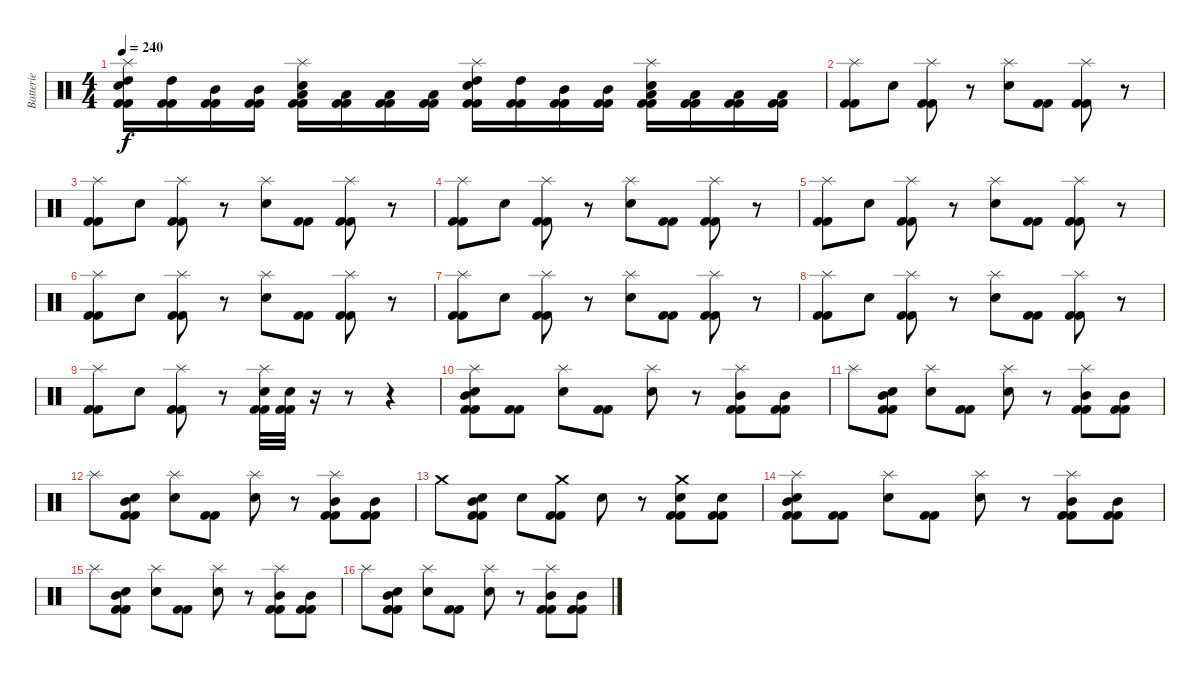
\track ("Batterie" "Batterie") {instrument percussion}
\staff {score}
\articulation defaults
\ts (4 4)
\tempo 240
\clef neutral
\ks c
("Splash (hit)" "Snare (hit) 2" "High Tom (hit)" "Kick (hit) 2" "Kick (hit) 2").16{dy f} ("High Tom (hit)" "Kick (hit) 2" "Kick (hit) 2").16 ("Mid Tom (hit)" "Kick (hit) 2" "Kick (hit) 2").16 ("Mid Tom (hit)" "Kick (hit) 2" "Kick (hit) 2").16 ("Splash (hit)" "Snare (hit) 2" "Low Tom (hit)" "Kick (hit) 2" "Kick (hit) 2").16 ("Low Tom (hit)" "Kick (hit) 2" "Kick (hit) 2").16 ("Low Tom (hit)" "Kick (hit) 2" "Kick (hit) 2").16 ("Low Tom (hit)" "Kick (hit) 2" "Kick (hit) 2").16 ("Splash (hit)" "Snare (hit) 2" "High Tom (hit)" "Kick (hit) 2" "Kick (hit) 2").16 ("High Tom (hit)" "Kick (hit) 2" "Kick (hit) 2").16 ("Mid Tom (hit)" "Kick (hit) 2" "Kick (hit) 2").16 ("Mid Tom (hit)" "Kick (hit) 2" "Kick (hit) 2").16 ("Splash (hit)" "Snare (hit) 2" "Low Tom (hit)" "Kick (hit) 2" "Kick (hit) 2").16 ("Low Tom (hit)" "Kick (hit) 2" "Kick (hit) 2").16 ("Low Tom (hit)" "Kick (hit) 2" "Kick (hit) 2").16 ("Low Tom (hit)" "Kick (hit) 2" "Kick (hit) 2").16 |
("Splash (hit)" "Kick (hit) 2" "Kick (hit) 2").8 "Snare (hit) 2".8 ("Splash (hit)" "Kick (hit) 2" "Kick (hit) 2").8 r.8 ("Splash (hit)" "Snare (hit) 2").8 ("Kick (hit) 2" "Kick (hit) 2").8 ("Splash (hit)" "Kick (hit) 2" "Kick (hit) 2").8 r.8 |
("Splash (hit)" "Kick (hit) 2" "Kick (hit) 2").8 "Snare (hit) 2".8 ("Splash (hit)" "Kick (hit) 2" "Kick (hit) 2").8 r.8 ("Splash (hit)" "Snare (hit) 2").8 ("Kick (hit) 2" "Kick (hit) 2").8 ("Splash (hit)" "Kick (hit) 2" "Kick (hit) 2").8 r.8 |
("Splash (hit)" "Kick (hit) 2" "Kick (hit) 2").8 "Snare (hit) 2".8 ("Splash (hit)" "Kick (hit) 2" "Kick (hit) 2").8 r.8 ("Splash (hit)" "Snare (hit) 2").8 ("Kick (hit) 2" "Kick (hit) 2").8 ("Splash (hit)" "Kick (hit) 2" "Kick (hit) 2").8 r.8 |
("Splash (hit)" "Kick (hit) 2" "Kick (hit) 2").8 "Snare (hit) 2".8 ("Splash (hit)" "Kick (hit) 2" "Kick (hit) 2").8 r.8 ("Splash (hit)" "Snare (hit) 2").8 ("Kick (hit) 2" "Kick (hit) 2").8 ("Splash (hit)" "Kick (hit) 2" "Kick (hit) 2").8 r.8 |
("Splash (hit)" "Kick (hit) 2" "Kick (hit) 2").8 "Snare (hit) 2".8 ("Splash (hit)" "Kick (hit) 2" "Kick (hit) 2").8 r.8 ("Splash (hit)" "Snare (hit) 2").8 ("Kick (hit) 2" "Kick (hit) 2").8 ("Splash (hit)" "Kick (hit) 2" "Kick (hit) 2").8 r.8 |
("Splash (hit)" "Kick (hit) 2" "Kick (hit) 2").8 "Snare (hit) 2".8 ("Splash (hit)" "Kick (hit) 2" "Kick (hit) 2").8 r.8 ("Splash (hit)" "Snare (hit) 2").8 ("Kick (hit) 2" "Kick (hit) 2").8 ("Splash (hit)" "Kick (hit) 2" "Kick (hit) 2").8 r.8 |
("Splash (hit)" "Kick (hit) 2" "Kick (hit) 2").8 "Snare (hit) 2".8 ("Splash (hit)" "Kick (hit) 2" "Kick (hit) 2").8 r.8 ("Splash (hit)" "Snare (hit) 2").8 ("Kick (hit) 2" "Kick (hit) 2").8 ("Splash (hit)" "Kick (hit) 2" "Kick (hit) 2").8 r.8 |
("Splash (hit)" "Kick (hit) 2" "Kick (hit) 2").8 "Snare (hit) 2".8 ("Splash (hit)" "Kick (hit) 2" "Kick (hit) 2").8 r.8 ("Splash (hit)" "Snare (hit) 2" "Kick (hit) 2" "Kick (hit) 2").32 ("Snare (hit) 2" "Kick (hit) 2" "Kick (hit) 2").32 r.16 r.8 r.4 |
("Splash (hit)" "Snare (hit) 2" "Mid Tom (hit)" "Kick (hit) 2" "Kick (hit) 2").8 ("Kick (hit) 2" "Kick (hit) 2").8 ("Splash (hit)" "Snare (hit) 2").8 ("Kick (hit) 2" "Kick (hit) 2").8 ("Splash (hit)" "Snare (hit) 2").8 r.8 ("Splash (hit)" "Mid Tom (hit)" "Kick (hit) 2" "Kick (hit) 2").8 ("Mid Tom (hit)" "Kick (hit) 2" "Kick (hit) 2").8 |
"Splash (hit)".8 ("Snare (hit) 2" "Mid Tom (hit)" "Kick (hit) 2" "Kick (hit) 2").8 ("Splash (hit)" "Snare (hit) 2").8 ("Kick (hit) 2" "Kick (hit) 2").8 ("Splash (hit)" "Snare (hit) 2").8 r.8 ("Splash (hit)" "Mid Tom (hit)" "Kick (hit) 2" "Kick (hit) 2").8 ("Mid Tom (hit)" "Kick (hit) 2" "Kick (hit) 2").8 |
"Splash (hit)".8 ("Snare (hit) 2" "Mid Tom (hit)" "Kick (hit) 2" "Kick (hit) 2").8 ("Splash (hit)" "Snare (hit) 2").8 ("Kick (hit) 2" "Kick (hit) 2").8 ("Splash (hit)" "Snare (hit) 2").8 r.8 ("Splash (hit)" "Mid Tom (hit)" "Kick (hit) 2" "Kick (hit) 2").8 ("Mid Tom (hit)" "Kick (hit) 2" "Kick (hit) 2").8 |
"Crash medium (hit)".8 ("Snare (hit) 2" "Mid Tom (hit)" "Kick (hit) 2" "Kick (hit) 2").8 "Snare (hit) 2".8 ("Crash medium (hit)" "Kick (hit) 2" "Kick (hit) 2").8 "Snare (hit) 2".8 r.8 ("Crash medium (hit)" "Snare (hit) 2" "Kick (hit) 2" "Kick (hit) 2").8 ("Snare (hit) 2" "Kick (hit) 2" "Kick (hit) 2").8 |
("Splash (hit)" "Snare (hit) 2" "Mid Tom (hit)" "Kick (hit) 2" "Kick (hit) 2").8 ("Kick (hit) 2" "Kick (hit) 2").8 ("Splash (hit)" "Snare (hit) 2").8 ("Kick (hit) 2" "Kick (hit) 2").8 ("Splash (hit)" "Snare (hit) 2").8 r.8 ("Splash (hit)" "Mid Tom (hit)" "Kick (hit) 2" "Kick (hit) 2").8 ("Mid Tom (hit)" "Kick (hit) 2" "Kick (hit) 2").8 |
"Splash (hit)".8 ("Snare (hit) 2" "Mid Tom (hit)" "Kick (hit) 2" "Kick (hit) 2").8 ("Splash (hit)" "Snare (hit) 2").8 ("Kick (hit) 2" "Kick (hit) 2").8 ("Splash (hit)" "Snare (hit) 2").8 r.8 ("Splash (hit)" "Mid Tom (hit)" "Kick (hit) 2" "Kick (hit) 2").8 ("Mid Tom (hit)" "Kick (hit) 2" "Kick (hit) 2").8 |
"Splash (hit)".8 ("Snare (hit) 2" "Mid Tom (hit)" "Kick (hit) 2" "Kick (hit) 2").8 ("Splash (hit)" "Snare (hit) 2").8 ("Kick (hit) 2" "Kick (hit) 2").8 ("Splash (hit)" "Snare (hit) 2").8 r.8 ("Splash (hit)" "Mid Tom (hit)" "Kick (hit) 2" "Kick (hit) 2").8 ("Mid Tom (hit)" "Kick (hit) 2" "Kick (hit) 2").8
